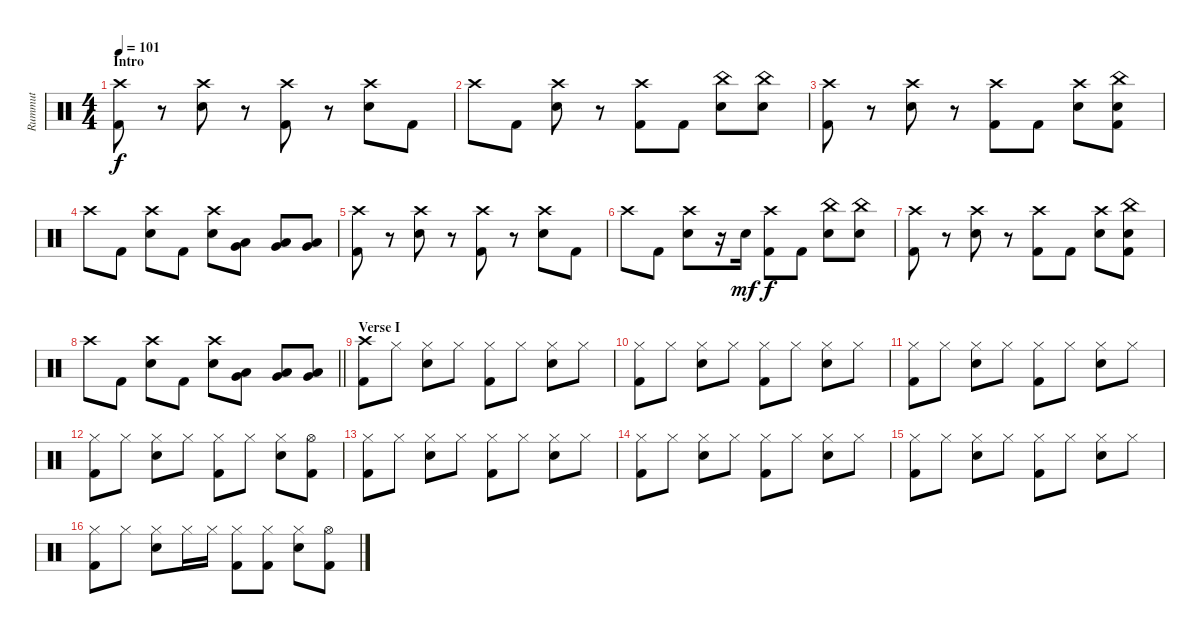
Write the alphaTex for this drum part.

\track ("Rummut" "Rummut") {instrument percussion}
\staff {score}
\articulation defaults
\ts (4 4)
\section ("" "Intro")
\tempo 101
\clef neutral
\ks c
("Crash high (hit)" "Kick (hit) 2").8{dy f} r.8 ("Crash high (hit)" "Electric Snare (hit)").8 r.8 ("Crash high (hit)" "Kick (hit) 2").8 r.8 ("Crash high (hit)" "Electric Snare (hit)").8 "Kick (hit) 2".8 |
"Crash high (hit)".8 "Kick (hit) 2".8 ("Crash high (hit)" "Electric Snare (hit)").8 r.8 ("Crash high (hit)" "Kick (hit) 2").8 "Kick (hit) 2".8 ("China (hit)" "Electric Snare (hit)").8 ("China (hit)" "Electric Snare (hit)").8 |
("Crash high (hit)" "Kick (hit) 2").8 r.8 ("Crash high (hit)" "Electric Snare (hit)").8 r.8 ("Crash high (hit)" "Kick (hit) 2").8 "Kick (hit) 2".8 ("Crash high (hit)" "Electric Snare (hit)").8 ("China (hit)" "Electric Snare (hit)" "Kick (hit) 2").8 |
"Crash high (hit)".8 "Kick (hit) 2".8 ("Crash high (hit)" "Electric Snare (hit)").8 "Kick (hit) 2".8 ("Crash high (hit)" "Electric Snare (hit)").8 ("Very Low Tom (hit)" "Low Floor Tom (hit)").8 ("Very Low Tom (hit)" "Low Floor Tom (hit)").8 ("Very Low Tom (hit)" "Low Floor Tom (hit)").8 |
("Crash high (hit)" "Kick (hit) 2").8 r.8 ("Crash high (hit)" "Electric Snare (hit)").8 r.8 ("Crash high (hit)" "Kick (hit) 2").8 r.8 ("Crash high (hit)" "Electric Snare (hit)").8 "Kick (hit) 2".8 |
"Crash high (hit)".8 "Kick (hit) 2".8 ("Crash high (hit)" "Electric Snare (hit)").8 r.16 "Electric Snare (hit)".16{dy mf} ("Crash high (hit)" "Kick (hit) 2").8{dy f} "Kick (hit) 2".8 ("China (hit)" "Electric Snare (hit)").8 ("China (hit)" "Electric Snare (hit)").8 |
("Crash high (hit)" "Kick (hit) 2").8 r.8 ("Crash high (hit)" "Electric Snare (hit)").8 r.8 ("Crash high (hit)" "Kick (hit) 2").8 "Kick (hit) 2".8 ("Crash high (hit)" "Electric Snare (hit)").8 ("China (hit)" "Electric Snare (hit)" "Kick (hit) 2").8 |
\barLineRight lightlight "Crash high (hit)".8 "Kick (hit) 2".8
("Crash high (hit)" "Electric Snare (hit)").8 "Kick (hit) 2".8 ("Crash high (hit)" "Electric Snare (hit)").8 ("Very Low Tom (hit)" "Low Floor Tom (hit)").8 ("Very Low Tom (hit)" "Low Floor Tom (hit)").8 ("Very Low Tom (hit)" "Low Floor Tom (hit)").8 |
\section ("" "Verse I")
("Crash high (hit)" "Kick (hit) 2").8 "Hi-Hat (closed)".8 ("Hi-Hat (closed)" "Electric Snare (hit)").8 "Hi-Hat (closed)".8 ("Hi-Hat (closed)" "Kick (hit) 2").8 "Hi-Hat (closed)".8 ("Hi-Hat (closed)" "Electric Snare (hit)").8 "Hi-Hat (closed)".8 |
("Hi-Hat (closed)" "Kick (hit) 2").8 "Hi-Hat (closed)".8 ("Hi-Hat (closed)" "Electric Snare (hit)").8 "Hi-Hat (closed)".8 ("Hi-Hat (closed)" "Kick (hit) 2").8 "Hi-Hat (closed)".8 ("Hi-Hat (closed)" "Electric Snare (hit)").8 "Hi-Hat (closed)".8 |
("Hi-Hat (closed)" "Kick (hit) 2").8 "Hi-Hat (closed)".8 ("Hi-Hat (closed)" "Electric Snare (hit)").8 "Hi-Hat (closed)".8 ("Hi-Hat (closed)" "Kick (hit) 2").8 "Hi-Hat (closed)".8 ("Hi-Hat (closed)" "Electric Snare (hit)").8 "Hi-Hat (closed)".8 |
("Hi-Hat (closed)" "Kick (hit) 2").8 "Hi-Hat (closed)".8 ("Hi-Hat (closed)" "Electric Snare (hit)").8 "Hi-Hat (closed)".8 ("Hi-Hat (closed)" "Kick (hit) 2").8 "Hi-Hat (closed)".8 ("Hi-Hat (closed)" "Electric Snare (hit)").8 ("Hi-Hat (open)" "Kick (hit) 2").8 |
("Hi-Hat (closed)" "Kick (hit) 2").8 "Hi-Hat (closed)".8 ("Hi-Hat (closed)" "Electric Snare (hit)").8 "Hi-Hat (closed)".8 ("Hi-Hat (closed)" "Kick (hit) 2").8 "Hi-Hat (closed)".8 ("Hi-Hat (closed)" "Electric Snare (hit)").8 "Hi-Hat (closed)".8 |
("Hi-Hat (closed)" "Kick (hit) 2").8 "Hi-Hat (closed)".8 ("Hi-Hat (closed)" "Electric Snare (hit)").8 "Hi-Hat (closed)".8 ("Hi-Hat (closed)" "Kick (hit) 2").8 "Hi-Hat (closed)".8 ("Hi-Hat (closed)" "Electric Snare (hit)").8 "Hi-Hat (closed)".8 |
("Hi-Hat (closed)" "Kick (hit) 2").8 "Hi-Hat (closed)".8 ("Hi-Hat (closed)" "Electric Snare (hit)").8 "Hi-Hat (closed)".8 ("Hi-Hat (closed)" "Kick (hit) 2").8 "Hi-Hat (closed)".8 ("Hi-Hat (closed)" "Electric Snare (hit)").8 "Hi-Hat (closed)".8 |
("Hi-Hat (closed)" "Kick (hit) 2").8 "Hi-Hat (closed)".8 ("Hi-Hat (closed)" "Electric Snare (hit)").8 "Hi-Hat (closed)".16 "Hi-Hat (closed)".16 ("Hi-Hat (closed)" "Kick (hit) 2").8 ("Hi-Hat (closed)" "Kick (hit) 2").8 ("Hi-Hat (closed)" "Electric Snare (hit)").8 ("Hi-Hat (open)" "Kick (hit) 2").8
